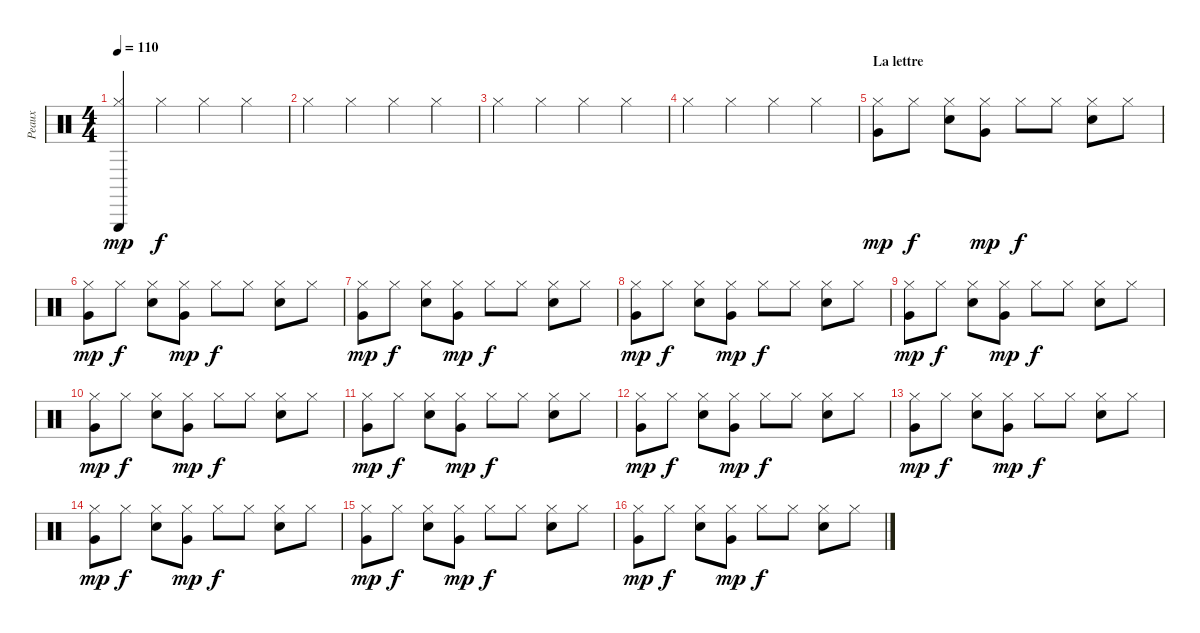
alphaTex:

\track ("Peaux" "Peaux") {instrument percussion}
\staff {score}
\articulation defaults
\ts (4 4)
\tempo 110
\clef neutral
\ks c
("Hi-Hat (closed)" "Triangle (hit)").4{dy mp} "Hi-Hat (closed)".4{dy f} "Hi-Hat (closed)".4 "Hi-Hat (closed)".4 |
"Hi-Hat (closed)".4 "Hi-Hat (closed)".4 "Hi-Hat (closed)".4 "Hi-Hat (closed)".4 |
"Hi-Hat (closed)".4 "Hi-Hat (closed)".4 "Hi-Hat (closed)".4 "Hi-Hat (closed)".4 |
"Hi-Hat (closed)".4 "Hi-Hat (closed)".4 "Hi-Hat (closed)".4 "Hi-Hat (closed)".4 |
\section ("" "La lettre")
("Hi-Hat (closed)" "Very Low Tom (hit)").8{dy mp} "Hi-Hat (closed)".8{dy f} ("Hi-Hat (closed)" "Electric Snare (hit)").8 ("Hi-Hat (closed)" "Very Low Tom (hit)").8{dy mp} "Hi-Hat (closed)".8{dy f} "Hi-Hat (closed)".8 ("Hi-Hat (closed)" "Electric Snare (hit)").8 "Hi-Hat (closed)".8 |
("Hi-Hat (closed)" "Very Low Tom (hit)").8{dy mp} "Hi-Hat (closed)".8{dy f} ("Hi-Hat (closed)" "Electric Snare (hit)").8 ("Hi-Hat (closed)" "Very Low Tom (hit)").8{dy mp} "Hi-Hat (closed)".8{dy f} "Hi-Hat (closed)".8 ("Hi-Hat (closed)" "Electric Snare (hit)").8 "Hi-Hat (closed)".8 |
("Hi-Hat (closed)" "Very Low Tom (hit)").8{dy mp} "Hi-Hat (closed)".8{dy f} ("Hi-Hat (closed)" "Electric Snare (hit)").8 ("Hi-Hat (closed)" "Very Low Tom (hit)").8{dy mp} "Hi-Hat (closed)".8{dy f} "Hi-Hat (closed)".8 ("Hi-Hat (closed)" "Electric Snare (hit)").8 "Hi-Hat (closed)".8 |
("Hi-Hat (closed)" "Very Low Tom (hit)").8{dy mp} "Hi-Hat (closed)".8{dy f} ("Hi-Hat (closed)" "Electric Snare (hit)").8 ("Hi-Hat (closed)" "Very Low Tom (hit)").8{dy mp} "Hi-Hat (closed)".8{dy f} "Hi-Hat (closed)".8 ("Hi-Hat (closed)" "Electric Snare (hit)").8 "Hi-Hat (closed)".8 |
("Hi-Hat (closed)" "Very Low Tom (hit)").8{dy mp} "Hi-Hat (closed)".8{dy f} ("Hi-Hat (closed)" "Electric Snare (hit)").8 ("Hi-Hat (closed)" "Very Low Tom (hit)").8{dy mp} "Hi-Hat (closed)".8{dy f} "Hi-Hat (closed)".8 ("Hi-Hat (closed)" "Electric Snare (hit)").8 "Hi-Hat (closed)".8 |
("Hi-Hat (closed)" "Very Low Tom (hit)").8{dy mp} "Hi-Hat (closed)".8{dy f} ("Hi-Hat (closed)" "Electric Snare (hit)").8 ("Hi-Hat (closed)" "Very Low Tom (hit)").8{dy mp} "Hi-Hat (closed)".8{dy f} "Hi-Hat (closed)".8 ("Hi-Hat (closed)" "Electric Snare (hit)").8 "Hi-Hat (closed)".8 |
("Hi-Hat (closed)" "Very Low Tom (hit)").8{dy mp} "Hi-Hat (closed)".8{dy f} ("Hi-Hat (closed)" "Electric Snare (hit)").8 ("Hi-Hat (closed)" "Very Low Tom (hit)").8{dy mp} "Hi-Hat (closed)".8{dy f} "Hi-Hat (closed)".8 ("Hi-Hat (closed)" "Electric Snare (hit)").8 "Hi-Hat (closed)".8 |
("Hi-Hat (closed)" "Very Low Tom (hit)").8{dy mp} "Hi-Hat (closed)".8{dy f} ("Hi-Hat (closed)" "Electric Snare (hit)").8 ("Hi-Hat (closed)" "Very Low Tom (hit)").8{dy mp} "Hi-Hat (closed)".8{dy f} "Hi-Hat (closed)".8 ("Hi-Hat (closed)" "Electric Snare (hit)").8 "Hi-Hat (closed)".8 |
("Hi-Hat (closed)" "Very Low Tom (hit)").8{dy mp} "Hi-Hat (closed)".8{dy f} ("Hi-Hat (closed)" "Electric Snare (hit)").8 ("Hi-Hat (closed)" "Very Low Tom (hit)").8{dy mp} "Hi-Hat (closed)".8{dy f} "Hi-Hat (closed)".8 ("Hi-Hat (closed)" "Electric Snare (hit)").8 "Hi-Hat (closed)".8 |
("Hi-Hat (closed)" "Very Low Tom (hit)").8{dy mp} "Hi-Hat (closed)".8{dy f} ("Hi-Hat (closed)" "Electric Snare (hit)").8 ("Hi-Hat (closed)" "Very Low Tom (hit)").8{dy mp} "Hi-Hat (closed)".8{dy f} "Hi-Hat (closed)".8 ("Hi-Hat (closed)" "Electric Snare (hit)").8 "Hi-Hat (closed)".8 |
("Hi-Hat (closed)" "Very Low Tom (hit)").8{dy mp} "Hi-Hat (closed)".8{dy f} ("Hi-Hat (closed)" "Electric Snare (hit)").8 ("Hi-Hat (closed)" "Very Low Tom (hit)").8{dy mp} "Hi-Hat (closed)".8{dy f} "Hi-Hat (closed)".8 ("Hi-Hat (closed)" "Electric Snare (hit)").8 "Hi-Hat (closed)".8 |
("Hi-Hat (closed)" "Very Low Tom (hit)").8{dy mp} "Hi-Hat (closed)".8{dy f} ("Hi-Hat (closed)" "Electric Snare (hit)").8 ("Hi-Hat (closed)" "Very Low Tom (hit)").8{dy mp} "Hi-Hat (closed)".8{dy f} "Hi-Hat (closed)".8 ("Hi-Hat (closed)" "Electric Snare (hit)").8 "Hi-Hat (closed)".8
